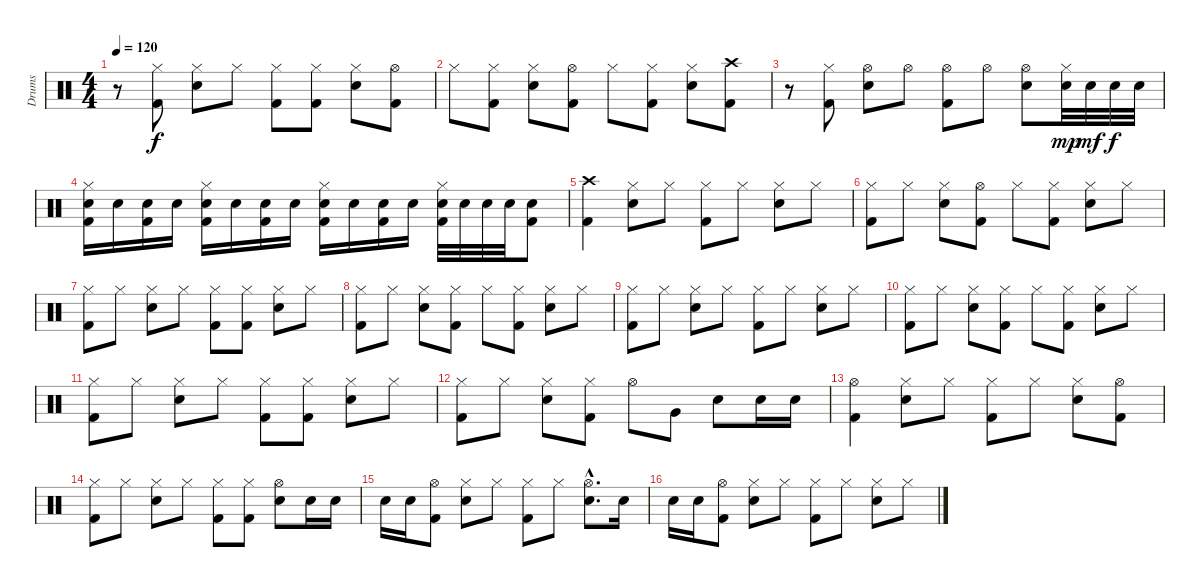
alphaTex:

\track ("Drums" "Drums") {instrument percussion}
\staff {score}
\articulation defaults
\ts (4 4)
\tempo 120
\clef neutral
\ks c
r.8{dy f} ("Hi-Hat (closed)" "Kick (hit) 2").8 ("Hi-Hat (closed)" "Electric Snare (hit)").8 "Hi-Hat (closed)".8 ("Hi-Hat (closed)" "Kick (hit) 2").8 ("Hi-Hat (closed)" "Kick (hit) 2").8 ("Hi-Hat (closed)" "Electric Snare (hit)").8 ("Hi-Hat (open)" "Kick (hit) 2").8 |
"Hi-Hat (closed)".8 ("Hi-Hat (closed)" "Kick (hit) 2").8 ("Hi-Hat (closed)" "Electric Snare (hit)").8 ("Hi-Hat (open)" "Kick (hit) 2").8 "Hi-Hat (closed)".8 ("Hi-Hat (closed)" "Kick (hit) 2").8 ("Hi-Hat (closed)" "Electric Snare (hit)").8 ("Crash high (hit)" "Kick (hit) 2").8 |
r.8 ("Hi-Hat (closed)" "Kick (hit) 2").8 ("Hi-Hat (open)" "Electric Snare (hit)").8 "Hi-Hat (open)".8 ("Hi-Hat (open)" "Kick (hit) 2").8 "Hi-Hat (open)".8 ("Hi-Hat (open)" "Electric Snare (hit)").8 ("Hi-Hat (closed)" "Electric Snare (hit)").32{dy mp} "Electric Snare (hit)".32{dy mf} "Electric Snare (hit)".32{dy f} "Electric Snare (hit)".32 |
("Hi-Hat (closed)" "Electric Snare (hit)" "Kick (hit) 2").16 "Electric Snare (hit)".16 ("Electric Snare (hit)" "Kick (hit) 2").16 "Electric Snare (hit)".16 ("Hi-Hat (closed)" "Electric Snare (hit)" "Kick (hit) 2").16 "Electric Snare (hit)".16 ("Electric Snare (hit)" "Kick (hit) 2").16 "Electric Snare (hit)".16 ("Hi-Hat (closed)" "Electric Snare (hit)" "Kick (hit) 2").16 "Electric Snare (hit)".16 ("Electric Snare (hit)" "Kick (hit) 2").16 "Electric Snare (hit)".16 ("Hi-Hat (closed)" "Electric Snare (hit)" "Kick (hit) 2").32 "Electric Snare (hit)".32 "Electric Snare (hit)".32 "Electric Snare (hit)".32 ("Electric Snare (hit)" "Kick (hit) 2").8 |
("Crash high (hit)" "Kick (hit) 2").4 ("Hi-Hat (closed)" "Electric Snare (hit)").8 "Hi-Hat (closed)".8 ("Hi-Hat (closed)" "Kick (hit) 2").8 "Hi-Hat (closed)".8 ("Hi-Hat (closed)" "Electric Snare (hit)").8 "Hi-Hat (closed)".8 |
("Hi-Hat (closed)" "Kick (hit) 2").8 "Hi-Hat (closed)".8 ("Hi-Hat (closed)" "Electric Snare (hit)").8 ("Hi-Hat (open)" "Kick (hit) 2").8 "Hi-Hat (closed)".8 ("Hi-Hat (closed)" "Kick (hit) 2").8 ("Hi-Hat (closed)" "Electric Snare (hit)").8 "Hi-Hat (closed)".8 |
("Hi-Hat (closed)" "Kick (hit) 2").8 "Hi-Hat (closed)".8 ("Hi-Hat (closed)" "Electric Snare (hit)").8 "Hi-Hat (closed)".8 ("Hi-Hat (closed)" "Kick (hit) 2").8 ("Hi-Hat (closed)" "Kick (hit) 2").8 ("Hi-Hat (closed)" "Electric Snare (hit)").8 "Hi-Hat (closed)".8 |
("Hi-Hat (closed)" "Kick (hit) 2").8 "Hi-Hat (closed)".8 ("Hi-Hat (closed)" "Electric Snare (hit)").8 ("Hi-Hat (closed)" "Kick (hit) 2").8 "Hi-Hat (closed)".8 ("Hi-Hat (closed)" "Kick (hit) 2").8 ("Hi-Hat (closed)" "Electric Snare (hit)").8 "Hi-Hat (closed)".8 |
("Hi-Hat (closed)" "Kick (hit) 2").8 "Hi-Hat (closed)".8 ("Hi-Hat (closed)" "Electric Snare (hit)").8 "Hi-Hat (closed)".8 ("Hi-Hat (closed)" "Kick (hit) 2").8 "Hi-Hat (closed)".8 ("Hi-Hat (closed)" "Electric Snare (hit)").8 "Hi-Hat (closed)".8 |
("Hi-Hat (closed)" "Kick (hit) 2").8 "Hi-Hat (closed)".8 ("Hi-Hat (closed)" "Electric Snare (hit)").8 ("Hi-Hat (closed)" "Kick (hit) 2").8 "Hi-Hat (closed)".8 ("Hi-Hat (closed)" "Kick (hit) 2").8 ("Hi-Hat (closed)" "Electric Snare (hit)").8 "Hi-Hat (closed)".8 |
("Hi-Hat (closed)" "Kick (hit) 2").8 "Hi-Hat (closed)".8 ("Hi-Hat (closed)" "Electric Snare (hit)").8 "Hi-Hat (closed)".8 ("Hi-Hat (closed)" "Kick (hit) 2").8 ("Hi-Hat (closed)" "Kick (hit) 2").8 ("Hi-Hat (closed)" "Electric Snare (hit)").8 "Hi-Hat (closed)".8 |
("Hi-Hat (closed)" "Kick (hit) 2").8 "Hi-Hat (closed)".8 ("Hi-Hat (closed)" "Electric Snare (hit)").8 ("Hi-Hat (closed)" "Kick (hit) 2").8 "Hi-Hat (open)".8 "Very Low Tom (hit)".8 "Electric Snare (hit)".8 "Electric Snare (hit)".16 "Electric Snare (hit)".16 |
("Hi-Hat (open)" "Kick (hit) 2").4 ("Hi-Hat (closed)" "Electric Snare (hit)").8 "Hi-Hat (closed)".8 ("Hi-Hat (closed)" "Kick (hit) 2").8 "Hi-Hat (closed)".8 ("Hi-Hat (closed)" "Electric Snare (hit)").8 ("Hi-Hat (open)" "Kick (hit) 2").8 |
("Hi-Hat (closed)" "Kick (hit) 2").8 "Hi-Hat (closed)".8 ("Hi-Hat (closed)" "Electric Snare (hit)").8 "Hi-Hat (closed)".8 ("Hi-Hat (closed)" "Kick (hit) 2").8 ("Hi-Hat (closed)" "Kick (hit) 2").8 ("Hi-Hat (open)" "Electric Snare (hit)").8 "Electric Snare (hit)".16 "Electric Snare (hit)".16 |
"Electric Snare (hit)".16 "Electric Snare (hit)".16 ("Hi-Hat (open)" "Kick (hit) 2").8 ("Hi-Hat (closed)" "Electric Snare (hit)").8 "Hi-Hat (closed)".8 ("Hi-Hat (closed)" "Kick (hit) 2").8 "Hi-Hat (closed)".8 ("Hi-Hat (open)" "Electric Snare (hit)"{hac}).8{d} "Electric Snare (hit)".16 |
"Electric Snare (hit)".16 "Electric Snare (hit)".16 ("Hi-Hat (open)" "Kick (hit) 2").8 ("Hi-Hat (closed)" "Electric Snare (hit)").8 "Hi-Hat (closed)".8 ("Hi-Hat (closed)" "Kick (hit) 2").8 "Hi-Hat (closed)".8 ("Hi-Hat (closed)" "Electric Snare (hit)").8 "Hi-Hat (closed)".8
